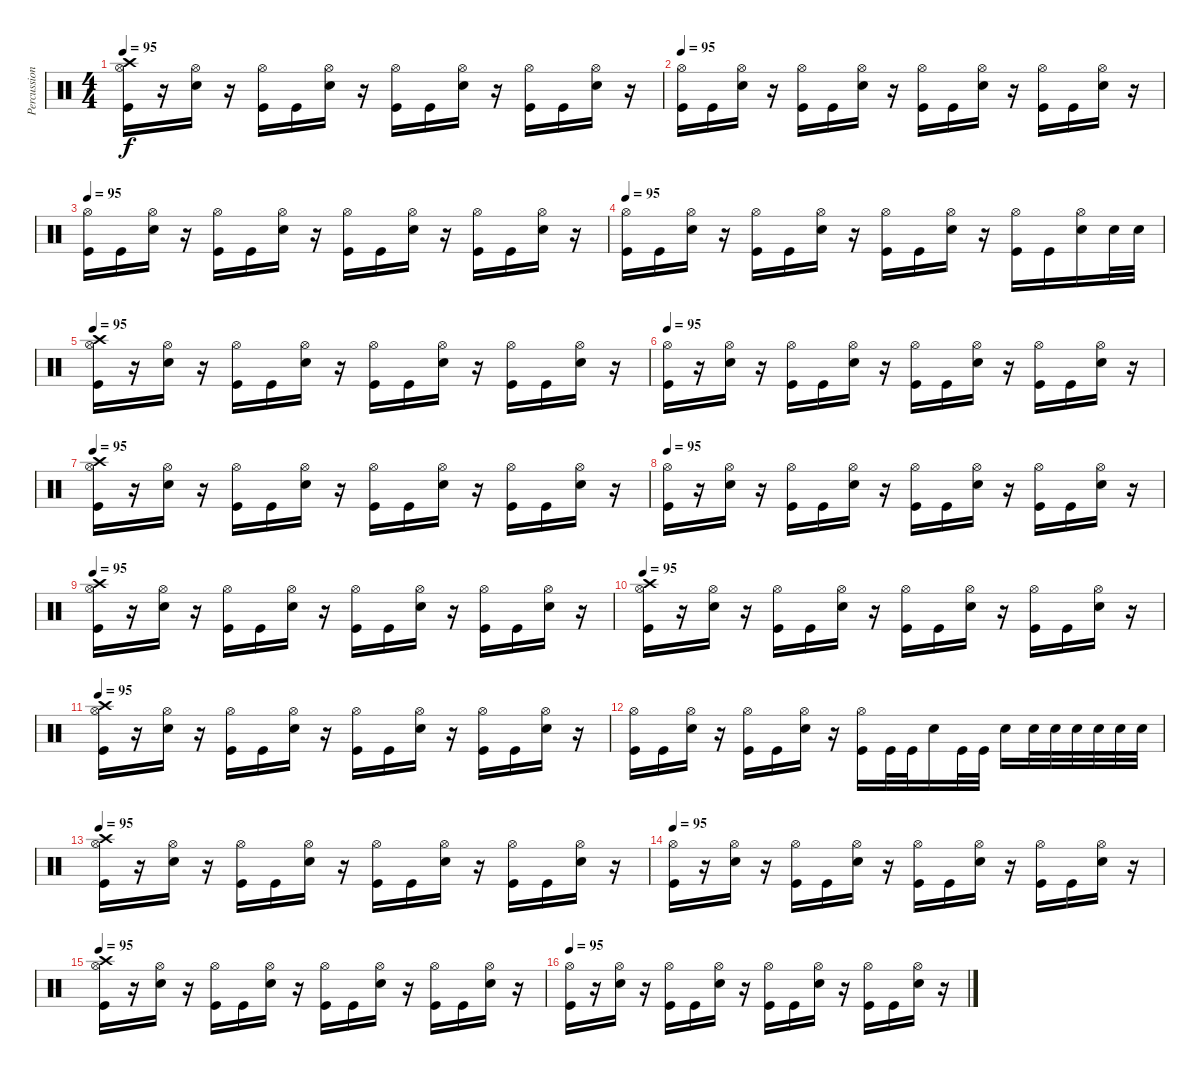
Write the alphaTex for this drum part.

\track ("Percussion" "Percussion") {instrument percussion}
\staff {score}
\articulation defaults
\ts (4 4)
\tempo 95
\clef neutral
\ks c
("Hi-Hat (open)" "Crash high (hit)" "Kick (hit)").16{dy f} r.16 ("Hi-Hat (open)" "Snare (hit) 2").16 r.16 ("Hi-Hat (open)" "Kick (hit)").16 "Kick (hit)".16 ("Hi-Hat (open)" "Snare (hit) 2").16 r.16 ("Hi-Hat (open)" "Kick (hit)").16 "Kick (hit)".16 ("Hi-Hat (open)" "Snare (hit) 2").16 r.16 ("Hi-Hat (open)" "Kick (hit)").16 "Kick (hit)".16 ("Hi-Hat (open)" "Snare (hit) 2").16 r.16 |
\tempo 95
("Hi-Hat (open)" "Kick (hit)").16 "Kick (hit)".16 ("Hi-Hat (open)" "Snare (hit) 2").16 r.16 ("Hi-Hat (open)" "Kick (hit)").16 "Kick (hit)".16 ("Hi-Hat (open)" "Snare (hit) 2").16 r.16 ("Hi-Hat (open)" "Kick (hit)").16 "Kick (hit)".16 ("Hi-Hat (open)" "Snare (hit) 2").16 r.16 ("Hi-Hat (open)" "Kick (hit)").16 "Kick (hit)".16 ("Hi-Hat (open)" "Snare (hit) 2").16 r.16 |
\tempo 95
("Hi-Hat (open)" "Kick (hit)").16 "Kick (hit)".16 ("Hi-Hat (open)" "Snare (hit) 2").16 r.16 ("Hi-Hat (open)" "Kick (hit)").16 "Kick (hit)".16 ("Hi-Hat (open)" "Snare (hit) 2").16 r.16 ("Hi-Hat (open)" "Kick (hit)").16 "Kick (hit)".16 ("Hi-Hat (open)" "Snare (hit) 2").16 r.16 ("Hi-Hat (open)" "Kick (hit)").16 "Kick (hit)".16 ("Hi-Hat (open)" "Snare (hit) 2").16 r.16 |
\tempo 95
("Hi-Hat (open)" "Kick (hit)").16 "Kick (hit)".16 ("Hi-Hat (open)" "Snare (hit) 2").16 r.16 ("Hi-Hat (open)" "Kick (hit)").16 "Kick (hit)".16 ("Hi-Hat (open)" "Snare (hit) 2").16 r.16 ("Hi-Hat (open)" "Kick (hit)").16 "Kick (hit)".16 ("Hi-Hat (open)" "Snare (hit) 2").16 r.16 ("Hi-Hat (open)" "Kick (hit)").16 "Kick (hit)".16 ("Hi-Hat (open)" "Snare (hit) 2").16 "Snare (hit) 2".32 "Snare (hit) 2".32 |
\tempo 95
("Hi-Hat (open)" "Crash high (hit)" "Kick (hit)").16 r.16 ("Hi-Hat (open)" "Snare (hit) 2").16 r.16 ("Hi-Hat (open)" "Kick (hit)").16 "Kick (hit)".16 ("Hi-Hat (open)" "Snare (hit) 2").16 r.16 ("Hi-Hat (open)" "Kick (hit)").16 "Kick (hit)".16 ("Hi-Hat (open)" "Snare (hit) 2").16 r.16 ("Hi-Hat (open)" "Kick (hit)").16 "Kick (hit)".16 ("Hi-Hat (open)" "Snare (hit) 2").16 r.16 |
\tempo 95
("Hi-Hat (open)" "Kick (hit)").16 r.16 ("Hi-Hat (open)" "Snare (hit) 2").16 r.16 ("Hi-Hat (open)" "Kick (hit)").16 "Kick (hit)".16 ("Hi-Hat (open)" "Snare (hit) 2").16 r.16 ("Hi-Hat (open)" "Kick (hit)").16 "Kick (hit)".16 ("Hi-Hat (open)" "Snare (hit) 2").16 r.16 ("Hi-Hat (open)" "Kick (hit)").16 "Kick (hit)".16 ("Hi-Hat (open)" "Snare (hit) 2").16 r.16 |
\tempo 95
("Hi-Hat (open)" "Crash high (hit)" "Kick (hit)").16 r.16 ("Hi-Hat (open)" "Snare (hit) 2").16 r.16 ("Hi-Hat (open)" "Kick (hit)").16 "Kick (hit)".16 ("Hi-Hat (open)" "Snare (hit) 2").16 r.16 ("Hi-Hat (open)" "Kick (hit)").16 "Kick (hit)".16 ("Hi-Hat (open)" "Snare (hit) 2").16 r.16 ("Hi-Hat (open)" "Kick (hit)").16 "Kick (hit)".16 ("Hi-Hat (open)" "Snare (hit) 2").16 r.16 |
\tempo 95
("Hi-Hat (open)" "Kick (hit)").16 r.16 ("Hi-Hat (open)" "Snare (hit) 2").16 r.16 ("Hi-Hat (open)" "Kick (hit)").16 "Kick (hit)".16 ("Hi-Hat (open)" "Snare (hit) 2").16 r.16 ("Hi-Hat (open)" "Kick (hit)").16 "Kick (hit)".16 ("Hi-Hat (open)" "Snare (hit) 2").16 r.16 ("Hi-Hat (open)" "Kick (hit)").16 "Kick (hit)".16 ("Hi-Hat (open)" "Snare (hit) 2").16 r.16 |
\tempo 95
("Hi-Hat (open)" "Crash high (hit)" "Kick (hit)").16 r.16 ("Hi-Hat (open)" "Snare (hit) 2").16 r.16 ("Hi-Hat (open)" "Kick (hit)").16 "Kick (hit)".16 ("Hi-Hat (open)" "Snare (hit) 2").16 r.16 ("Hi-Hat (open)" "Kick (hit)").16 "Kick (hit)".16 ("Hi-Hat (open)" "Snare (hit) 2").16 r.16 ("Hi-Hat (open)" "Kick (hit)").16 "Kick (hit)".16 ("Hi-Hat (open)" "Snare (hit) 2").16 r.16 |
\tempo 95
("Hi-Hat (open)" "Crash high (hit)" "Kick (hit)").16 r.16 ("Hi-Hat (open)" "Snare (hit) 2").16 r.16 ("Hi-Hat (open)" "Kick (hit)").16 "Kick (hit)".16 ("Hi-Hat (open)" "Snare (hit) 2").16 r.16 ("Hi-Hat (open)" "Kick (hit)").16 "Kick (hit)".16 ("Hi-Hat (open)" "Snare (hit) 2").16 r.16 ("Hi-Hat (open)" "Kick (hit)").16 "Kick (hit)".16 ("Hi-Hat (open)" "Snare (hit) 2").16 r.16 |
\tempo 95
("Hi-Hat (open)" "Crash high (hit)" "Kick (hit)").16 r.16 ("Hi-Hat (open)" "Snare (hit) 2").16 r.16 ("Hi-Hat (open)" "Kick (hit)").16 "Kick (hit)".16 ("Hi-Hat (open)" "Snare (hit) 2").16 r.16 ("Hi-Hat (open)" "Kick (hit)").16 "Kick (hit)".16 ("Hi-Hat (open)" "Snare (hit) 2").16 r.16 ("Hi-Hat (open)" "Kick (hit)").16 "Kick (hit)".16 ("Hi-Hat (open)" "Snare (hit) 2").16 r.16 |
("Hi-Hat (open)" "Kick (hit)").16 "Kick (hit)".16 ("Hi-Hat (open)" "Snare (hit) 2").16 r.16 ("Hi-Hat (open)" "Kick (hit)").16 "Kick (hit)".16 ("Hi-Hat (open)" "Snare (hit) 2").16 r.16 ("Hi-Hat (open)" "Kick (hit)").16 "Kick (hit)".32 "Kick (hit)".32 "Snare (hit) 2".16 "Kick (hit)".32 "Kick (hit)".32 "Snare (hit) 2".16 "Snare (hit) 2".32 "Snare (hit) 2".32 "Snare (hit) 2".32 "Snare (hit) 2".32 "Snare (hit) 2".32 "Snare (hit) 2".32 |
\tempo 95
("Hi-Hat (open)" "Crash high (hit)" "Kick (hit)").16 r.16 ("Hi-Hat (open)" "Snare (hit) 2").16 r.16 ("Hi-Hat (open)" "Kick (hit)").16 "Kick (hit)".16 ("Hi-Hat (open)" "Snare (hit) 2").16 r.16 ("Hi-Hat (open)" "Kick (hit)").16 "Kick (hit)".16 ("Hi-Hat (open)" "Snare (hit) 2").16 r.16 ("Hi-Hat (open)" "Kick (hit)").16 "Kick (hit)".16 ("Hi-Hat (open)" "Snare (hit) 2").16 r.16 |
\tempo 95
("Hi-Hat (open)" "Kick (hit)").16 r.16 ("Hi-Hat (open)" "Snare (hit) 2").16 r.16 ("Hi-Hat (open)" "Kick (hit)").16 "Kick (hit)".16 ("Hi-Hat (open)" "Snare (hit) 2").16 r.16 ("Hi-Hat (open)" "Kick (hit)").16 "Kick (hit)".16 ("Hi-Hat (open)" "Snare (hit) 2").16 r.16 ("Hi-Hat (open)" "Kick (hit)").16 "Kick (hit)".16 ("Hi-Hat (open)" "Snare (hit) 2").16 r.16 |
\tempo 95
("Hi-Hat (open)" "Crash high (hit)" "Kick (hit)").16 r.16 ("Hi-Hat (open)" "Snare (hit) 2").16 r.16 ("Hi-Hat (open)" "Kick (hit)").16 "Kick (hit)".16 ("Hi-Hat (open)" "Snare (hit) 2").16 r.16 ("Hi-Hat (open)" "Kick (hit)").16 "Kick (hit)".16 ("Hi-Hat (open)" "Snare (hit) 2").16 r.16 ("Hi-Hat (open)" "Kick (hit)").16 "Kick (hit)".16 ("Hi-Hat (open)" "Snare (hit) 2").16 r.16 |
\tempo 95
("Hi-Hat (open)" "Kick (hit)").16 r.16 ("Hi-Hat (open)" "Snare (hit) 2").16 r.16 ("Hi-Hat (open)" "Kick (hit)").16 "Kick (hit)".16 ("Hi-Hat (open)" "Snare (hit) 2").16 r.16 ("Hi-Hat (open)" "Kick (hit)").16 "Kick (hit)".16 ("Hi-Hat (open)" "Snare (hit) 2").16 r.16 ("Hi-Hat (open)" "Kick (hit)").16 "Kick (hit)".16 ("Hi-Hat (open)" "Snare (hit) 2").16 r.16
